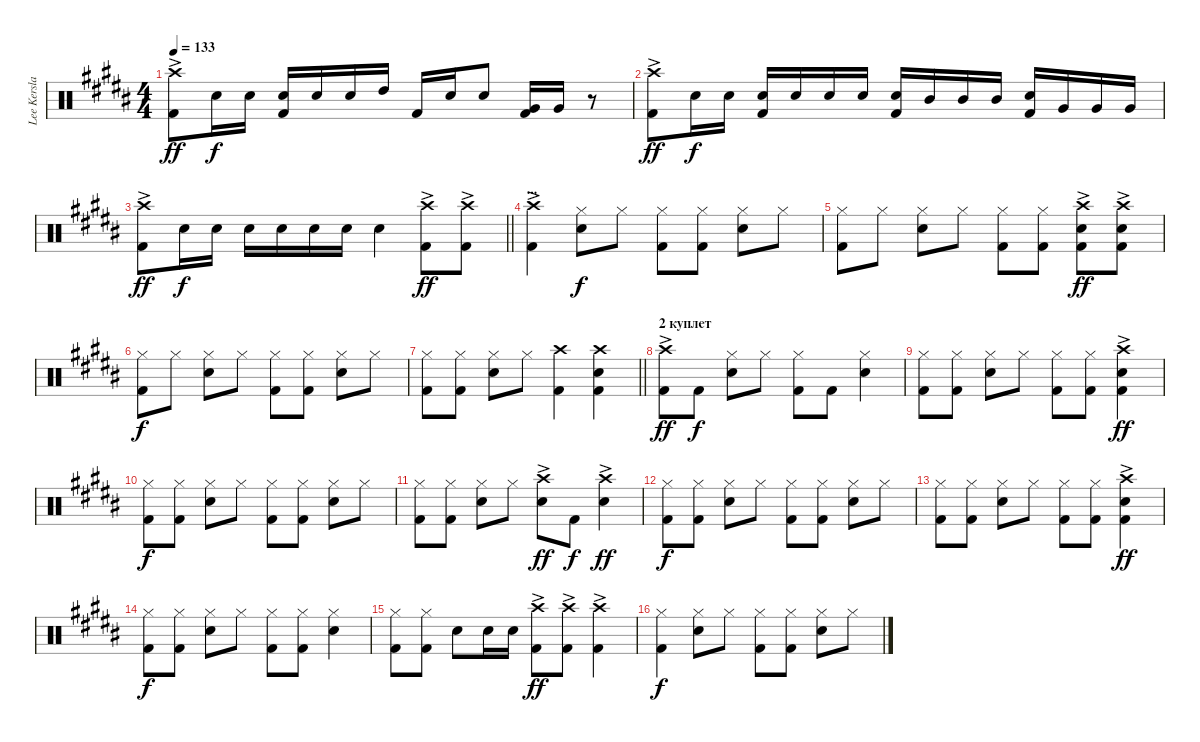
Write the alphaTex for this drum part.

\track ("Lee Kerslake" "Lee Kersla") {instrument percussion}
\staff {score}
\articulation defaults
\ts (4 4)
\tempo 133
\clef neutral
\ks b
("Crash high (hit)"{ac} "Kick (hit) 2").8{dy ff} "Snare (hit) 2".16{dy f} "Snare (hit) 2".16 ("Snare (hit) 2" "Kick (hit) 2").16 "Snare (hit) 2".16 "Snare (hit) 2".16 "High Tom (hit)".16 "Kick (hit) 2".16 "Snare (hit) 2".16 "Snare (hit) 2".8 ("Very Low Tom (hit)" "Kick (hit) 2").16 "Very Low Tom (hit)".16 r.8 |
("Crash high (hit)"{ac} "Kick (hit) 2").8{dy ff} "Snare (hit) 2".16{dy f} "Snare (hit) 2".16 ("Snare (hit) 2" "Kick (hit) 2").16 "Snare (hit) 2".16 "Snare (hit) 2".16 "Snare (hit) 2".16 ("Kick (hit) 2" "Snare (hit) 2").16 "Mid Tom (hit)".16 "Mid Tom (hit)".16 "Mid Tom (hit)".16 ("Kick (hit) 2" "Snare (hit) 2").16 "Very Low Tom (hit)".16 "Very Low Tom (hit)".16 "Very Low Tom (hit)".16 |
\barLineRight lightlight
("Crash high (hit)"{ac} "Kick (hit) 2").8{dy ff} "Snare (hit) 2".16{dy f} "Snare (hit) 2".16 "Snare (hit) 2".16 "Snare (hit) 2".16 "Snare (hit) 2".16 "Snare (hit) 2".16 "Snare (hit) 2".4 ("Crash high (hit)"{ac} "Kick (hit) 2").8{dy ff} ("Crash high (hit)"{ac} "Kick (hit) 2").8 |
\section ("" "...")
("Crash high (hit)"{ac} "Kick (hit) 2").4 ("Snare (hit) 2" "Hi-Hat (closed)").8{dy f} "Hi-Hat (closed)".8 ("Hi-Hat (closed)" "Kick (hit) 2").8 ("Hi-Hat (closed)" "Kick (hit) 2").8 ("Snare (hit) 2" "Hi-Hat (closed)").8 "Hi-Hat (closed)".8 |
("Hi-Hat (closed)" "Kick (hit) 2").8 "Hi-Hat (closed)".8 ("Snare (hit) 2" "Hi-Hat (closed)").8 "Hi-Hat (closed)".8 ("Hi-Hat (closed)" "Kick (hit) 2").8 ("Hi-Hat (closed)" "Kick (hit) 2").8 ("Crash high (hit)"{ac} "Kick (hit) 2" "Snare (hit) 2").8{dy ff} ("Crash high (hit)"{ac} "Kick (hit) 2" "Snare (hit) 2").8 |
("Hi-Hat (closed)" "Kick (hit) 2").8{dy f} "Hi-Hat (closed)".8 ("Snare (hit) 2" "Hi-Hat (closed)").8 "Hi-Hat (closed)".8 ("Hi-Hat (closed)" "Kick (hit) 2").8 ("Hi-Hat (closed)" "Kick (hit) 2").8 ("Snare (hit) 2" "Hi-Hat (closed)").8 "Hi-Hat (closed)".8 |
\barLineRight lightlight
("Hi-Hat (closed)" "Kick (hit) 2").8 ("Hi-Hat (closed)" "Kick (hit) 2").8 ("Snare (hit) 2" "Hi-Hat (closed)").8 "Hi-Hat (closed)".8 ("Kick (hit) 2" "Crash high (hit)").4 ("Kick (hit) 2" "Snare (hit) 2" "Crash high (hit)").4 |
\section ("" "2 куплет")
("Kick (hit) 2" "Crash high (hit)"{ac}).8{dy ff} "Kick (hit) 2".8{dy f} ("Snare (hit) 2" "Hi-Hat (closed)").8 "Hi-Hat (closed)".8 ("Hi-Hat (closed)" "Kick (hit) 2").8 "Kick (hit) 2".8 ("Snare (hit) 2" "Hi-Hat (closed)").4 |
("Hi-Hat (closed)" "Kick (hit) 2").8 ("Hi-Hat (closed)" "Kick (hit) 2").8 ("Snare (hit) 2" "Hi-Hat (closed)").8 "Hi-Hat (closed)".8 ("Hi-Hat (closed)" "Kick (hit) 2").8 ("Hi-Hat (closed)" "Kick (hit) 2").8 ("Kick (hit) 2" "Snare (hit) 2" "Crash high (hit)"{ac}).4{dy ff} |
("Hi-Hat (closed)" "Kick (hit) 2").8{dy f} ("Hi-Hat (closed)" "Kick (hit) 2").8 ("Snare (hit) 2" "Hi-Hat (closed)").8 "Hi-Hat (closed)".8 ("Hi-Hat (closed)" "Kick (hit) 2").8 ("Hi-Hat (closed)" "Kick (hit) 2").8 ("Snare (hit) 2" "Hi-Hat (closed)").8 "Hi-Hat (closed)".8 |
("Hi-Hat (closed)" "Kick (hit) 2").8 ("Hi-Hat (closed)" "Kick (hit) 2").8 ("Snare (hit) 2" "Hi-Hat (closed)").8 "Hi-Hat (closed)".8 ("Snare (hit) 2" "Crash high (hit)"{ac}).8{dy ff} "Kick (hit) 2".8{dy f} ("Snare (hit) 2" "Crash high (hit)"{ac}).4{dy ff} |
("Hi-Hat (closed)" "Kick (hit) 2").8{dy f} ("Hi-Hat (closed)" "Kick (hit) 2").8 ("Snare (hit) 2" "Hi-Hat (closed)").8 "Hi-Hat (closed)".8 ("Hi-Hat (closed)" "Kick (hit) 2").8 ("Hi-Hat (closed)" "Kick (hit) 2").8 ("Snare (hit) 2" "Hi-Hat (closed)").8 "Hi-Hat (closed)".8 |
("Hi-Hat (closed)" "Kick (hit) 2").8 ("Hi-Hat (closed)" "Kick (hit) 2").8 ("Snare (hit) 2" "Hi-Hat (closed)").8 "Hi-Hat (closed)".8 ("Hi-Hat (closed)" "Kick (hit) 2").8 ("Hi-Hat (closed)" "Kick (hit) 2").8 ("Snare (hit) 2" "Crash high (hit)"{ac} "Kick (hit) 2").4{dy ff} |
("Hi-Hat (closed)" "Kick (hit) 2").8{dy f} ("Hi-Hat (closed)" "Kick (hit) 2").8 ("Snare (hit) 2" "Hi-Hat (closed)").8 "Hi-Hat (closed)".8 ("Hi-Hat (closed)" "Kick (hit) 2").8 ("Hi-Hat (closed)" "Kick (hit) 2").8 ("Snare (hit) 2" "Hi-Hat (closed)").4 |
("Hi-Hat (closed)" "Kick (hit) 2").8 ("Hi-Hat (closed)" "Kick (hit) 2").8 "Snare (hit) 2".8 "Snare (hit) 2".16 "Snare (hit) 2".16 ("Kick (hit) 2" "Crash high (hit)"{ac}).8{dy ff} ("Kick (hit) 2" "Crash high (hit)"{ac}).8 ("Kick (hit) 2" "Crash high (hit)"{ac}).4 |
("Hi-Hat (closed)" "Kick (hit) 2").4{dy f} ("Snare (hit) 2" "Hi-Hat (closed)").8 "Hi-Hat (closed)".8 ("Hi-Hat (closed)" "Kick (hit) 2").8 ("Hi-Hat (closed)" "Kick (hit) 2").8 ("Snare (hit) 2" "Hi-Hat (closed)").8 "Hi-Hat (closed)".8
